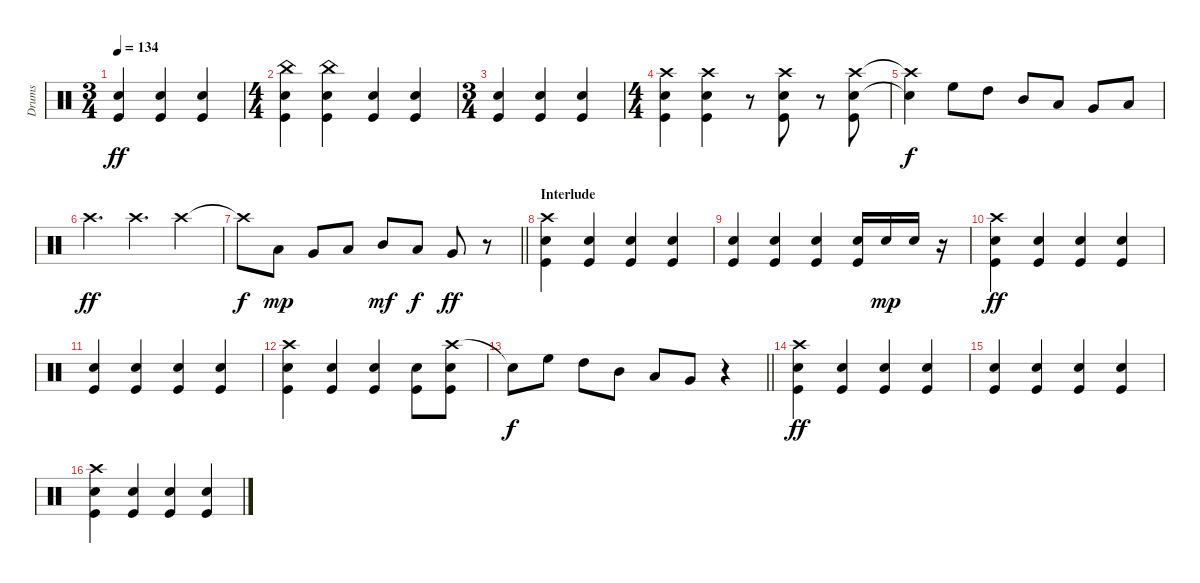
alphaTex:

\track ("Drums" "Drums") {instrument percussion}
\staff {score}
\articulation defaults
\ts (3 4)
\tempo 134
\clef neutral
\ks c
("Snare (hit) 2" "Kick (hit)").4{dy ff} ("Snare (hit) 2" "Kick (hit)").4 ("Snare (hit) 2" "Kick (hit)").4 |
\ts (4 4)
("China (hit)" "Snare (hit) 2" "Kick (hit)").4 ("China (hit)" "Snare (hit) 2" "Kick (hit)").4 ("Snare (hit) 2" "Kick (hit)").4 ("Snare (hit) 2" "Kick (hit)").4 |
\ts (3 4)
("Snare (hit) 2" "Kick (hit)").4 ("Snare (hit) 2" "Kick (hit)").4 ("Snare (hit) 2" "Kick (hit)").4 |
\ts (4 4)
("Crash high (hit)" "Snare (hit) 2" "Kick (hit)").4 ("Crash high (hit)" "Snare (hit) 2" "Kick (hit)").4 r.8 ("Crash high (hit)" "Snare (hit) 2" "Kick (hit)").8 r.8 ("Crash high (hit)" "Snare (hit) 2" "Kick (hit)").8 |
("Crash high (hit)"{t} "Snare (hit) 2"{t}).4{dy f} "High Floor Tom (hit)".8 "High Tom (hit)".8 "Mid Tom (hit)".8 "Low Tom (hit)".8 "Very Low Tom (hit)".8 "Low Floor Tom (hit)".8 |
"Crash high (hit)".4{d dy ff} "Crash high (hit)".4{d} "Crash high (hit)".4 |
\barLineRight lightlight "Crash high (hit)"{t}.8{dy f} "Low Tom (hit)".8{dy mp} "Very Low Tom (hit)".8 "Low Tom (hit)".8 "Mid Tom (hit)".8{dy mf} "Low Tom (hit)".8{dy f} "Very Low Tom (hit)".8{dy ff}
r.8 |
\section ("" "Interlude")
("Crash high (hit)" "Snare (hit) 2" "Kick (hit)").4 ("Snare (hit) 2" "Kick (hit)").4 ("Snare (hit) 2" "Kick (hit)").4 ("Snare (hit) 2" "Kick (hit)").4 |
("Snare (hit) 2" "Kick (hit)").4 ("Snare (hit) 2" "Kick (hit)").4 ("Snare (hit) 2" "Kick (hit)").4 ("Snare (hit) 2" "Kick (hit)").16 "Snare (hit) 2".16{dy mp} "Snare (hit) 2".16 r.16 |
("Crash high (hit)" "Snare (hit) 2" "Kick (hit)").4{dy ff} ("Snare (hit) 2" "Kick (hit)").4 ("Snare (hit) 2" "Kick (hit)").4 ("Snare (hit) 2" "Kick (hit)").4 |
("Snare (hit) 2" "Kick (hit)").4 ("Snare (hit) 2" "Kick (hit)").4 ("Snare (hit) 2" "Kick (hit)").4 ("Snare (hit) 2" "Kick (hit)").4 |
("Crash high (hit)" "Snare (hit) 2" "Kick (hit)").4 ("Snare (hit) 2" "Kick (hit)").4 ("Snare (hit) 2" "Kick (hit)").4 ("Snare (hit) 2" "Kick (hit)").8 ("Crash high (hit)" "Snare (hit) 2" "Kick (hit)").8 |
\barLineRight lightlight "Snare (hit) 2"{t}.8{dy f} "High Floor Tom (hit)".8 "High Tom (hit)".8 "Mid Tom (hit)".8 "Low Tom (hit)".8 "Very Low Tom (hit)".8
r.4 |
\section ("" "")
("Crash high (hit)" "Snare (hit) 2" "Kick (hit)").4{dy ff} ("Snare (hit) 2" "Kick (hit)").4 ("Snare (hit) 2" "Kick (hit)").4 ("Snare (hit) 2" "Kick (hit)").4 |
("Snare (hit) 2" "Kick (hit)").4 ("Snare (hit) 2" "Kick (hit)").4 ("Snare (hit) 2" "Kick (hit)").4 ("Snare (hit) 2" "Kick (hit)").4 |
("Crash high (hit)" "Snare (hit) 2" "Kick (hit)").4 ("Snare (hit) 2" "Kick (hit)").4 ("Snare (hit) 2" "Kick (hit)").4 ("Snare (hit) 2" "Kick (hit)").4
